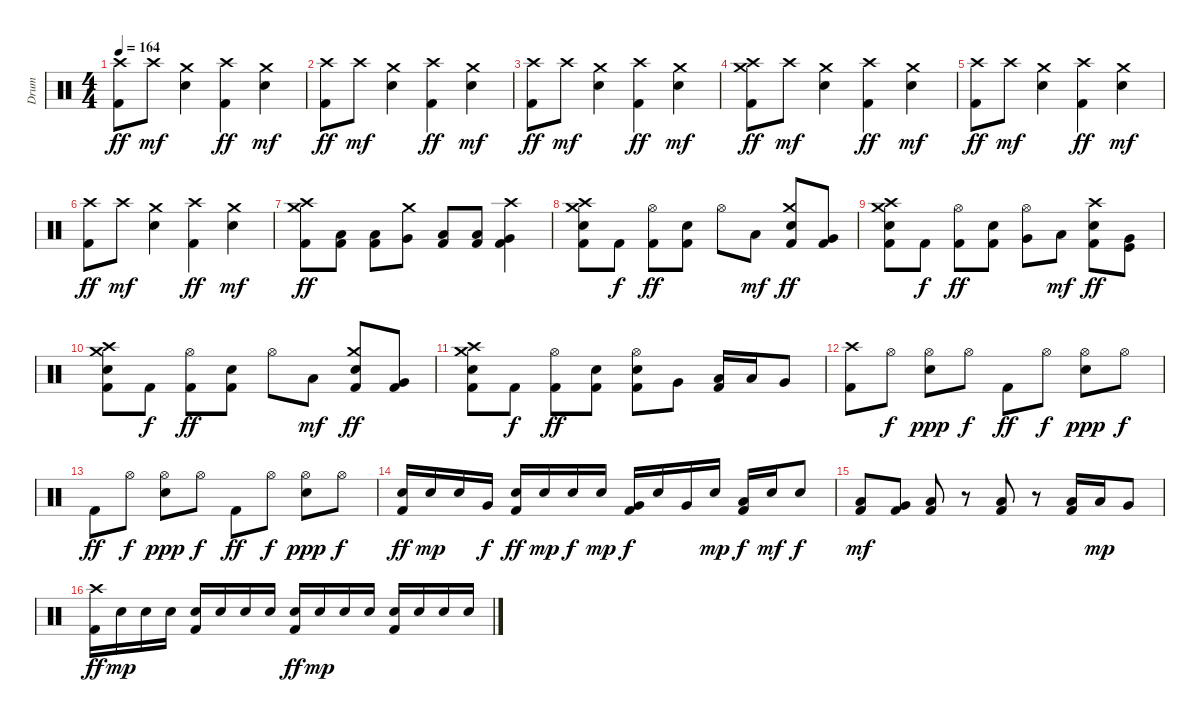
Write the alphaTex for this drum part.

\track ("Drum" "Drum") {instrument percussion}
\staff {score}
\articulation defaults
\ts (4 4)
\tempo 164
\clef neutral
\ks c
("Crash high (hit)" "Kick (hit) 2").8{dy ff} "Crash high (hit)".8{dy mf} ("Crash medium (hit)" "Electric Snare (hit)").4 ("Crash high (hit)" "Kick (hit) 2").4{dy ff} ("Crash medium (hit)" "Electric Snare (hit)").4{dy mf} |
("Crash high (hit)" "Kick (hit) 2").8{dy ff} "Crash high (hit)".8{dy mf} ("Crash medium (hit)" "Electric Snare (hit)").4 ("Crash high (hit)" "Kick (hit) 2").4{dy ff} ("Crash medium (hit)" "Electric Snare (hit)").4{dy mf} |
("Crash high (hit)" "Kick (hit) 2").8{dy ff} "Crash high (hit)".8{dy mf} ("Crash medium (hit)" "Electric Snare (hit)").4 ("Crash high (hit)" "Kick (hit) 2").4{dy ff} ("Crash medium (hit)" "Electric Snare (hit)").4{dy mf} |
("Crash high (hit)" "Crash medium (hit)" "Kick (hit) 2").8{dy ff} "Crash high (hit)".8{dy mf} ("Crash medium (hit)" "Electric Snare (hit)").4 ("Crash high (hit)" "Kick (hit) 2").4{dy ff} ("Crash medium (hit)" "Electric Snare (hit)").4{dy mf} |
("Crash high (hit)" "Kick (hit) 2").8{dy ff} "Crash high (hit)".8{dy mf} ("Crash medium (hit)" "Electric Snare (hit)").4 ("Crash high (hit)" "Kick (hit) 2").4{dy ff} ("Crash medium (hit)" "Electric Snare (hit)").4{dy mf} |
("Crash high (hit)" "Kick (hit) 2").8{dy ff} "Crash high (hit)".8{dy mf} ("Crash medium (hit)" "Electric Snare (hit)").4 ("Crash high (hit)" "Kick (hit) 2").4{dy ff} ("Crash medium (hit)" "Electric Snare (hit)").4{dy mf} |
("Crash medium (hit)" "Crash high (hit)" "Kick (hit) 2").8{dy ff} ("Low Tom (hit)" "Kick (hit) 2").8 ("Low Tom (hit)" "Kick (hit) 2").8 ("Crash medium (hit)" "Very Low Tom (hit)").8 ("Low Tom (hit)" "Kick (hit) 2").8 ("Low Tom (hit)" "Kick (hit) 2").8 ("Crash high (hit)" "Very Low Tom (hit)" "Kick (hit) 2").4 |
("Crash high (hit)" "Crash medium (hit)" "Electric Snare (hit)" "Kick (hit) 2").8 "Kick (hit) 2".8{dy f} ("Hi-Hat (open)" "Kick (hit) 2").8{dy ff} ("Electric Snare (hit)" "Kick (hit) 2").8 "Hi-Hat (open)".8 "Low Tom (hit)".8{dy mf} ("Crash medium (hit)" "Electric Snare (hit)" "Kick (hit) 2").8{dy ff} ("Very Low Tom (hit)" "Kick (hit) 2").8 |
("Crash high (hit)" "Crash medium (hit)" "Electric Snare (hit)" "Kick (hit) 2").8 "Kick (hit) 2".8{dy f} ("Hi-Hat (open)" "Kick (hit) 2").8{dy ff} ("Electric Snare (hit)" "Kick (hit) 2").8 ("Hi-Hat (open)" "Very Low Tom (hit)").8 "Low Tom (hit)".8{dy mf} ("Crash high (hit)" "Electric Snare (hit)" "Kick (hit) 2").8{dy ff} ("Very Low Tom (hit)" "Kick (hit)").8 |
("Crash high (hit)" "Crash medium (hit)" "Electric Snare (hit)" "Kick (hit) 2").8 "Kick (hit) 2".8{dy f} ("Hi-Hat (open)" "Kick (hit) 2").8{dy ff} ("Electric Snare (hit)" "Kick (hit) 2").8 "Hi-Hat (open)".8 "Low Tom (hit)".8{dy mf} ("Crash medium (hit)" "Electric Snare (hit)" "Kick (hit) 2").8{dy ff} ("Very Low Tom (hit)" "Kick (hit) 2").8 |
("Crash high (hit)" "Crash medium (hit)" "Electric Snare (hit)" "Kick (hit) 2").8 "Kick (hit) 2".8{dy f} ("Hi-Hat (open)" "Kick (hit) 2").8{dy ff} ("Electric Snare (hit)" "Kick (hit) 2").8 ("Hi-Hat (open)" "Electric Snare (hit)" "Kick (hit) 2").8 "Very Low Tom (hit)".8 ("Low Tom (hit)" "Kick (hit) 2").16 "Low Tom (hit)".16 "Very Low Tom (hit)".8 |
("Crash high (hit)" "Kick (hit) 2").8 "Hi-Hat (open)".8{dy f} ("Electric Snare (hit)" "Hi-Hat (open)").8{dy ppp} "Hi-Hat (open)".8{dy f} "Kick (hit) 2".8{dy ff} "Hi-Hat (open)".8{dy f} ("Electric Snare (hit)" "Hi-Hat (open)").8{dy ppp} "Hi-Hat (open)".8{dy f} |
"Kick (hit) 2".8{dy ff} "Hi-Hat (open)".8{dy f} ("Electric Snare (hit)" "Hi-Hat (open)").8{dy ppp} "Hi-Hat (open)".8{dy f} "Kick (hit) 2".8{dy ff} "Hi-Hat (open)".8{dy f} ("Electric Snare (hit)" "Hi-Hat (open)").8{dy ppp} "Hi-Hat (open)".8{dy f} |
("Electric Snare (hit)" "Kick (hit) 2").16{dy ff} "Electric Snare (hit)".16{dy mp} "Electric Snare (hit)".16 "Very Low Tom (hit)".16{dy f} ("Electric Snare (hit)" "Kick (hit) 2").16{dy ff} "Electric Snare (hit)".16{dy mp} "Electric Snare (hit)".16{dy f} "Electric Snare (hit)".16{dy mp} ("Very Low Tom (hit)" "Kick (hit) 2").16{dy f} "Electric Snare (hit)".16 "Very Low Tom (hit)".16 "Electric Snare (hit)".16{dy mp} ("Low Tom (hit)" "Kick (hit) 2").16{dy f} "Electric Snare (hit)".16{dy mf} "Electric Snare (hit)".8{dy f} |
("Low Tom (hit)" "Kick (hit) 2").8{dy mf} ("Very Low Tom (hit)" "Kick (hit) 2").8 ("Low Tom (hit)" "Kick (hit) 2").8 r.8 ("Low Tom (hit)" "Kick (hit) 2").8 r.8 ("Low Tom (hit)" "Kick (hit) 2").16 "Low Tom (hit)".16{dy mp} "Very Low Tom (hit)".8 |
("Crash high (hit)" "Kick (hit) 2").16{dy ff} "Electric Snare (hit)".16{dy mp} "Electric Snare (hit)".16 "Electric Snare (hit)".16 ("Electric Snare (hit)" "Kick (hit) 2").16 "Electric Snare (hit)".16 "Electric Snare (hit)".16 "Electric Snare (hit)".16 ("Electric Snare (hit)" "Kick (hit) 2").16{dy ff} "Electric Snare (hit)".16{dy mp} "Electric Snare (hit)".16 "Electric Snare (hit)".16 ("Electric Snare (hit)" "Kick (hit) 2").16 "Electric Snare (hit)".16 "Electric Snare (hit)".16 "Electric Snare (hit)".16
